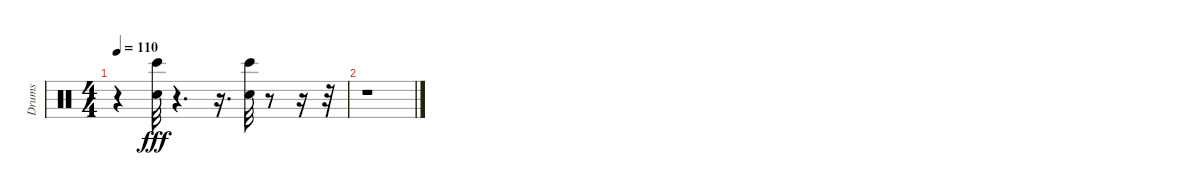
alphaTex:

\track ("Drums" "Drums") {instrument percussion}
\staff {score}
\articulation defaults
\ts (4 4)
\tempo 110
\clef neutral
\ks c
r.4{dy fff} ("Snare (hit) 2" "Bongo High (hit)").32 r.4{d} r.16{d} ("Snare (hit) 2" "Bongo High (hit)").32 r.8 r.16 r.32 |
r.1
